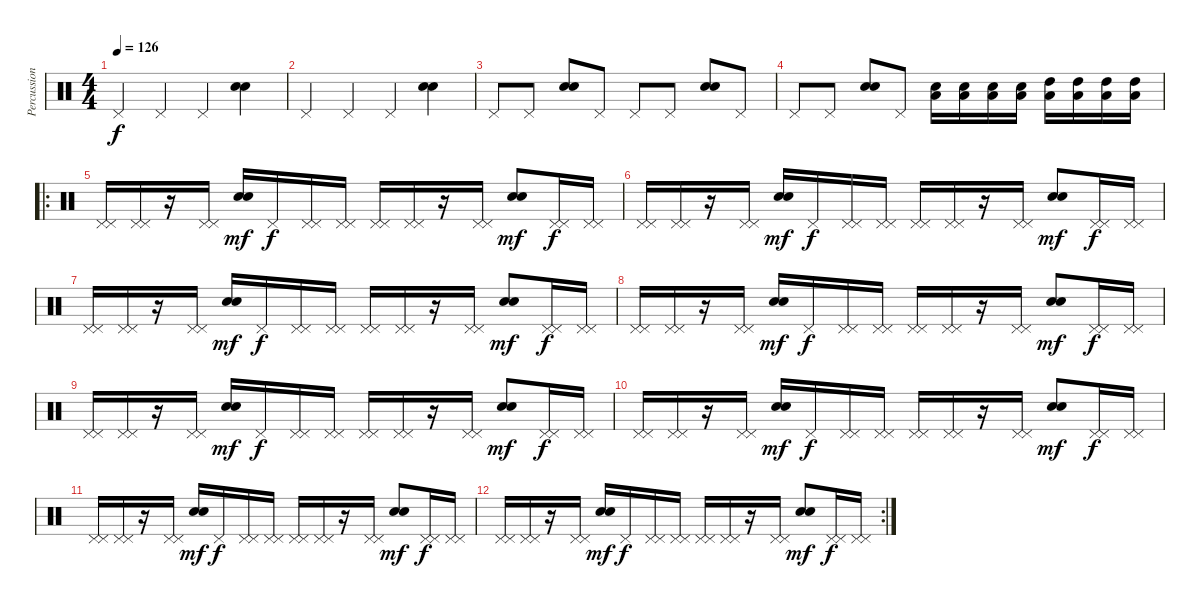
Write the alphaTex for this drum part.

\track ("Percussions" "Percussion") {instrument percussion}
\staff {score}
\articulation defaults
\ts (4 4)
\tempo 126
\clef neutral
\ks c "Pedal Hi-Hat (hit)".4{dy f} "Pedal Hi-Hat (hit)".4 "Pedal Hi-Hat (hit)".4
("Electric Snare (hit)" "Electric Snare (hit)").4 |
"Pedal Hi-Hat (hit)".4 "Pedal Hi-Hat (hit)".4 "Pedal Hi-Hat (hit)".4 ("Electric Snare (hit)" "Electric Snare (hit)").4 |
"Pedal Hi-Hat (hit)".8 "Pedal Hi-Hat (hit)".8 ("Electric Snare (hit)" "Electric Snare (hit)").8 "Pedal Hi-Hat (hit)".8 "Pedal Hi-Hat (hit)".8 "Pedal Hi-Hat (hit)".8 ("Electric Snare (hit)" "Electric Snare (hit)").8 "Pedal Hi-Hat (hit)".8 |
"Pedal Hi-Hat (hit)".8 "Pedal Hi-Hat (hit)".8 ("Electric Snare (hit)" "Electric Snare (hit)").8 "Pedal Hi-Hat (hit)".8 ("Electric Snare (hit)" "Low Tom (hit)").16 ("Electric Snare (hit)" "Low Tom (hit)").16 ("Electric Snare (hit)" "Low Tom (hit)").16 ("Electric Snare (hit)" "Low Tom (hit)").16 ("High Tom (hit)" "Low Tom (hit)").16 ("High Tom (hit)" "Low Tom (hit)").16 ("High Tom (hit)" "Low Tom (hit)").16 ("High Tom (hit)" "Low Tom (hit)").16 |
\ro
("Pedal Hi-Hat (hit)" "Pedal Hi-Hat (hit)").16{volume 13} ("Pedal Hi-Hat (hit)" "Pedal Hi-Hat (hit)").16 r.16 ("Pedal Hi-Hat (hit)" "Pedal Hi-Hat (hit)").16 ("Electric Snare (hit)" "Electric Snare (hit)").16{dy mf} "Pedal Hi-Hat (hit)".16{dy f} ("Pedal Hi-Hat (hit)" "Pedal Hi-Hat (hit)").16 ("Pedal Hi-Hat (hit)" "Pedal Hi-Hat (hit)").16 ("Pedal Hi-Hat (hit)" "Pedal Hi-Hat (hit)").16 ("Pedal Hi-Hat (hit)" "Pedal Hi-Hat (hit)").16 r.16 ("Pedal Hi-Hat (hit)" "Pedal Hi-Hat (hit)").16 ("Electric Snare (hit)" "Electric Snare (hit)").8{dy mf} ("Pedal Hi-Hat (hit)" "Pedal Hi-Hat (hit)").16{dy f} ("Pedal Hi-Hat (hit)" "Pedal Hi-Hat (hit)").16 |
("Pedal Hi-Hat (hit)" "Pedal Hi-Hat (hit)").16 ("Pedal Hi-Hat (hit)" "Pedal Hi-Hat (hit)").16 r.16 ("Pedal Hi-Hat (hit)" "Pedal Hi-Hat (hit)").16 ("Electric Snare (hit)" "Electric Snare (hit)").16{dy mf} "Pedal Hi-Hat (hit)".16{dy f} ("Pedal Hi-Hat (hit)" "Pedal Hi-Hat (hit)").16 ("Pedal Hi-Hat (hit)" "Pedal Hi-Hat (hit)").16 ("Pedal Hi-Hat (hit)" "Pedal Hi-Hat (hit)").16 ("Pedal Hi-Hat (hit)" "Pedal Hi-Hat (hit)").16 r.16 ("Pedal Hi-Hat (hit)" "Pedal Hi-Hat (hit)").16 ("Electric Snare (hit)" "Electric Snare (hit)").8{dy mf} ("Pedal Hi-Hat (hit)" "Pedal Hi-Hat (hit)").16{dy f} ("Pedal Hi-Hat (hit)" "Pedal Hi-Hat (hit)").16 |
("Pedal Hi-Hat (hit)" "Pedal Hi-Hat (hit)").16 ("Pedal Hi-Hat (hit)" "Pedal Hi-Hat (hit)").16 r.16 ("Pedal Hi-Hat (hit)" "Pedal Hi-Hat (hit)").16 ("Electric Snare (hit)" "Electric Snare (hit)").16{dy mf} "Pedal Hi-Hat (hit)".16{dy f} ("Pedal Hi-Hat (hit)" "Pedal Hi-Hat (hit)").16 ("Pedal Hi-Hat (hit)" "Pedal Hi-Hat (hit)").16 ("Pedal Hi-Hat (hit)" "Pedal Hi-Hat (hit)").16 ("Pedal Hi-Hat (hit)" "Pedal Hi-Hat (hit)").16 r.16 ("Pedal Hi-Hat (hit)" "Pedal Hi-Hat (hit)").16 ("Electric Snare (hit)" "Electric Snare (hit)").8{dy mf} ("Pedal Hi-Hat (hit)" "Pedal Hi-Hat (hit)").16{dy f} ("Pedal Hi-Hat (hit)" "Pedal Hi-Hat (hit)").16 |
("Pedal Hi-Hat (hit)" "Pedal Hi-Hat (hit)").16 ("Pedal Hi-Hat (hit)" "Pedal Hi-Hat (hit)").16 r.16 ("Pedal Hi-Hat (hit)" "Pedal Hi-Hat (hit)").16 ("Electric Snare (hit)" "Electric Snare (hit)").16{dy mf} "Pedal Hi-Hat (hit)".16{dy f} ("Pedal Hi-Hat (hit)" "Pedal Hi-Hat (hit)").16 ("Pedal Hi-Hat (hit)" "Pedal Hi-Hat (hit)").16 ("Pedal Hi-Hat (hit)" "Pedal Hi-Hat (hit)").16 ("Pedal Hi-Hat (hit)" "Pedal Hi-Hat (hit)").16 r.16 ("Pedal Hi-Hat (hit)" "Pedal Hi-Hat (hit)").16 ("Electric Snare (hit)" "Electric Snare (hit)").8{dy mf} ("Pedal Hi-Hat (hit)" "Pedal Hi-Hat (hit)").16{dy f} ("Pedal Hi-Hat (hit)" "Pedal Hi-Hat (hit)").16 |
("Pedal Hi-Hat (hit)" "Pedal Hi-Hat (hit)").16 ("Pedal Hi-Hat (hit)" "Pedal Hi-Hat (hit)").16 r.16 ("Pedal Hi-Hat (hit)" "Pedal Hi-Hat (hit)").16 ("Electric Snare (hit)" "Electric Snare (hit)").16{dy mf} "Pedal Hi-Hat (hit)".16{dy f} ("Pedal Hi-Hat (hit)" "Pedal Hi-Hat (hit)").16 ("Pedal Hi-Hat (hit)" "Pedal Hi-Hat (hit)").16 ("Pedal Hi-Hat (hit)" "Pedal Hi-Hat (hit)").16 ("Pedal Hi-Hat (hit)" "Pedal Hi-Hat (hit)").16 r.16 ("Pedal Hi-Hat (hit)" "Pedal Hi-Hat (hit)").16 ("Electric Snare (hit)" "Electric Snare (hit)").8{dy mf} ("Pedal Hi-Hat (hit)" "Pedal Hi-Hat (hit)").16{dy f} ("Pedal Hi-Hat (hit)" "Pedal Hi-Hat (hit)").16 |
("Pedal Hi-Hat (hit)" "Pedal Hi-Hat (hit)").16 ("Pedal Hi-Hat (hit)" "Pedal Hi-Hat (hit)").16 r.16 ("Pedal Hi-Hat (hit)" "Pedal Hi-Hat (hit)").16 ("Electric Snare (hit)" "Electric Snare (hit)").16{dy mf} "Pedal Hi-Hat (hit)".16{dy f} ("Pedal Hi-Hat (hit)" "Pedal Hi-Hat (hit)").16 ("Pedal Hi-Hat (hit)" "Pedal Hi-Hat (hit)").16 ("Pedal Hi-Hat (hit)" "Pedal Hi-Hat (hit)").16 ("Pedal Hi-Hat (hit)" "Pedal Hi-Hat (hit)").16 r.16 ("Pedal Hi-Hat (hit)" "Pedal Hi-Hat (hit)").16 ("Electric Snare (hit)" "Electric Snare (hit)").8{dy mf} ("Pedal Hi-Hat (hit)" "Pedal Hi-Hat (hit)").16{dy f} ("Pedal Hi-Hat (hit)" "Pedal Hi-Hat (hit)").16 |
("Pedal Hi-Hat (hit)" "Pedal Hi-Hat (hit)").16 ("Pedal Hi-Hat (hit)" "Pedal Hi-Hat (hit)").16 r.16 ("Pedal Hi-Hat (hit)" "Pedal Hi-Hat (hit)").16 ("Electric Snare (hit)" "Electric Snare (hit)").16{dy mf} "Pedal Hi-Hat (hit)".16{dy f} ("Pedal Hi-Hat (hit)" "Pedal Hi-Hat (hit)").16 ("Pedal Hi-Hat (hit)" "Pedal Hi-Hat (hit)").16 ("Pedal Hi-Hat (hit)" "Pedal Hi-Hat (hit)").16 ("Pedal Hi-Hat (hit)" "Pedal Hi-Hat (hit)").16 r.16 ("Pedal Hi-Hat (hit)" "Pedal Hi-Hat (hit)").16 ("Electric Snare (hit)" "Electric Snare (hit)").8{dy mf} ("Pedal Hi-Hat (hit)" "Pedal Hi-Hat (hit)").16{dy f} ("Pedal Hi-Hat (hit)" "Pedal Hi-Hat (hit)").16 |
\rc 2
("Pedal Hi-Hat (hit)" "Pedal Hi-Hat (hit)").16 ("Pedal Hi-Hat (hit)" "Pedal Hi-Hat (hit)").16 r.16 ("Pedal Hi-Hat (hit)" "Pedal Hi-Hat (hit)").16 ("Electric Snare (hit)" "Electric Snare (hit)").16{dy mf} "Pedal Hi-Hat (hit)".16{dy f} ("Pedal Hi-Hat (hit)" "Pedal Hi-Hat (hit)").16 ("Pedal Hi-Hat (hit)" "Pedal Hi-Hat (hit)").16 ("Pedal Hi-Hat (hit)" "Pedal Hi-Hat (hit)").16 ("Pedal Hi-Hat (hit)" "Pedal Hi-Hat (hit)").16 r.16 ("Pedal Hi-Hat (hit)" "Pedal Hi-Hat (hit)").16 ("Electric Snare (hit)" "Electric Snare (hit)").8{dy mf} ("Pedal Hi-Hat (hit)" "Pedal Hi-Hat (hit)").16{dy f} ("Pedal Hi-Hat (hit)" "Pedal Hi-Hat (hit)").16
